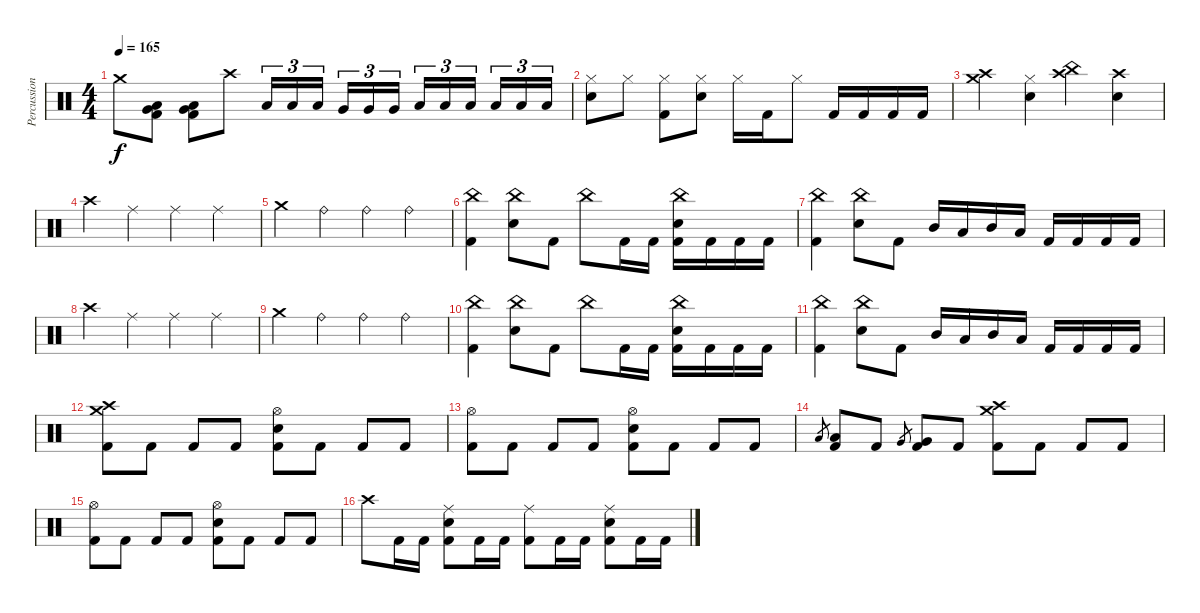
\track ("Percussion" "Percussion") {instrument percussion}
\staff {score}
\articulation defaults
\ts (4 4)
\tempo 165
\clef neutral
\ks c "Crash medium (hit)".8{dy f}
("Low Tom (hit)" "Very Low Tom (hit)" "Kick (hit) 2").8 ("Low Tom (hit)" "Very Low Tom (hit)" "Kick (hit) 2").8 "Crash high (hit)".8 "Low Tom (hit)".16{tu (3 2)} "Low Tom (hit)".16{tu (3 2)} "Low Tom (hit)".16{tu (3 2)} "Very Low Tom (hit)".16{tu (3 2)} "Very Low Tom (hit)".16{tu (3 2)} "Very Low Tom (hit)".16{tu (3 2)} "Low Tom (hit)".16{tu (3 2)} "Low Tom (hit)".16{tu (3 2)} "Low Tom (hit)".16{tu (3 2)} "Low Floor Tom (hit)".16{tu (3 2)} "Low Floor Tom (hit)".16{tu (3 2)} "Low Floor Tom (hit)".16{tu (3 2)} |
("Hi-Hat (closed)" "Snare (hit) 2").8 "Hi-Hat (closed)".8 ("Hi-Hat (closed)" "Kick (hit) 2").8 ("Hi-Hat (closed)" "Snare (hit) 2").8 "Hi-Hat (closed)".16 "Kick (hit) 2".16 "Hi-Hat (closed)".8 "Kick (hit) 2".16 "Kick (hit) 2".16 "Kick (hit) 2".16 "Kick (hit) 2".16 |
("Crash medium (hit)" "Crash high (hit)").4 ("Hi-Hat (closed)" "Snare (hit) 2").4 ("China (hit)" "Crash high (hit)").4 ("Crash high (hit)" "Snare (hit) 2").4 |
"Crash high (hit)".4 "Ride (middle)".4 "Ride (middle)".4 "Ride (middle)".4 |
"Crash medium (hit)".4 "Ride (bell)".4 "Ride (bell)".4 "Ride (bell)".4 |
("China (hit)" "Kick (hit) 2").4 ("China (hit)" "Snare (hit) 2").8 "Kick (hit) 2".8 "China (hit)".8 "Kick (hit) 2".16 "Kick (hit) 2".16 ("China (hit)" "Snare (hit) 2" "Kick (hit) 2").16 "Kick (hit) 2".16 "Kick (hit) 2".16 "Kick (hit) 2".16 |
("China (hit)" "Kick (hit) 2").4 ("China (hit)" "Snare (hit) 2").8 "Kick (hit) 2".8 "Mid Tom (hit)".16 "Low Tom (hit)".16 "Mid Tom (hit)".16 "Low Tom (hit)".16 "Kick (hit) 2".16 "Kick (hit) 2".16 "Kick (hit) 2".16 "Kick (hit) 2".16 |
"Crash high (hit)".4 "Ride (middle)".4 "Ride (middle)".4 "Ride (middle)".4 |
"Crash medium (hit)".4 "Ride (bell)".4 "Ride (bell)".4 "Ride (bell)".4 |
("China (hit)" "Kick (hit) 2").4 ("China (hit)" "Snare (hit) 2").8 "Kick (hit) 2".8 "China (hit)".8 "Kick (hit) 2".16 "Kick (hit) 2".16 ("China (hit)" "Snare (hit) 2" "Kick (hit) 2").16 "Kick (hit) 2".16 "Kick (hit) 2".16 "Kick (hit) 2".16 |
("China (hit)" "Kick (hit) 2").4 ("China (hit)" "Snare (hit) 2").8 "Kick (hit) 2".8 "Mid Tom (hit)".16 "Low Tom (hit)".16 "Mid Tom (hit)".16 "Low Tom (hit)".16 "Kick (hit) 2".16 "Kick (hit) 2".16 "Kick (hit) 2".16 "Kick (hit) 2".16 |
("Crash high (hit)" "Crash medium (hit)" "Kick (hit) 2").8 "Kick (hit) 2".8 "Kick (hit) 2".8 "Kick (hit) 2".8 ("Hi-Hat (open)" "Snare (hit) 2" "Kick (hit) 2").8 "Kick (hit) 2".8 "Kick (hit) 2".8 "Kick (hit) 2".8 |
("Hi-Hat (open)" "Kick (hit) 2").8 "Kick (hit) 2".8 "Kick (hit) 2".8 "Kick (hit) 2".8 ("Hi-Hat (open)" "Snare (hit) 2" "Kick (hit) 2").8 "Kick (hit) 2".8 "Kick (hit) 2".8 "Kick (hit) 2".8 |
"Low Tom (hit)".8{gr} ("Low Tom (hit)" "Kick (hit) 2").8 "Kick (hit) 2".8 "Very Low Tom (hit)".8{gr} ("Very Low Tom (hit)" "Kick (hit) 2").8 "Kick (hit) 2".8 ("Crash high (hit)" "Crash medium (hit)" "Kick (hit) 2").8 "Kick (hit) 2".8 "Kick (hit) 2".8 "Kick (hit) 2".8 |
("Hi-Hat (open)" "Kick (hit) 2").8 "Kick (hit) 2".8 "Kick (hit) 2".8 "Kick (hit) 2".8 ("Hi-Hat (open)" "Snare (hit) 2" "Kick (hit) 2").8 "Kick (hit) 2".8 "Kick (hit) 2".8 "Kick (hit) 2".8 |
"Crash high (hit)".8 "Kick (hit) 2".16 "Kick (hit) 2".16 ("Ride (middle)" "Snare (hit) 2" "Kick (hit) 2").8 "Kick (hit) 2".16 "Kick (hit) 2".16 ("Ride (middle)" "Kick (hit) 2").8 "Kick (hit) 2".16 "Kick (hit) 2".16 ("Ride (middle)" "Snare (hit) 2" "Kick (hit) 2").8 "Kick (hit) 2".16 "Kick (hit) 2".16
